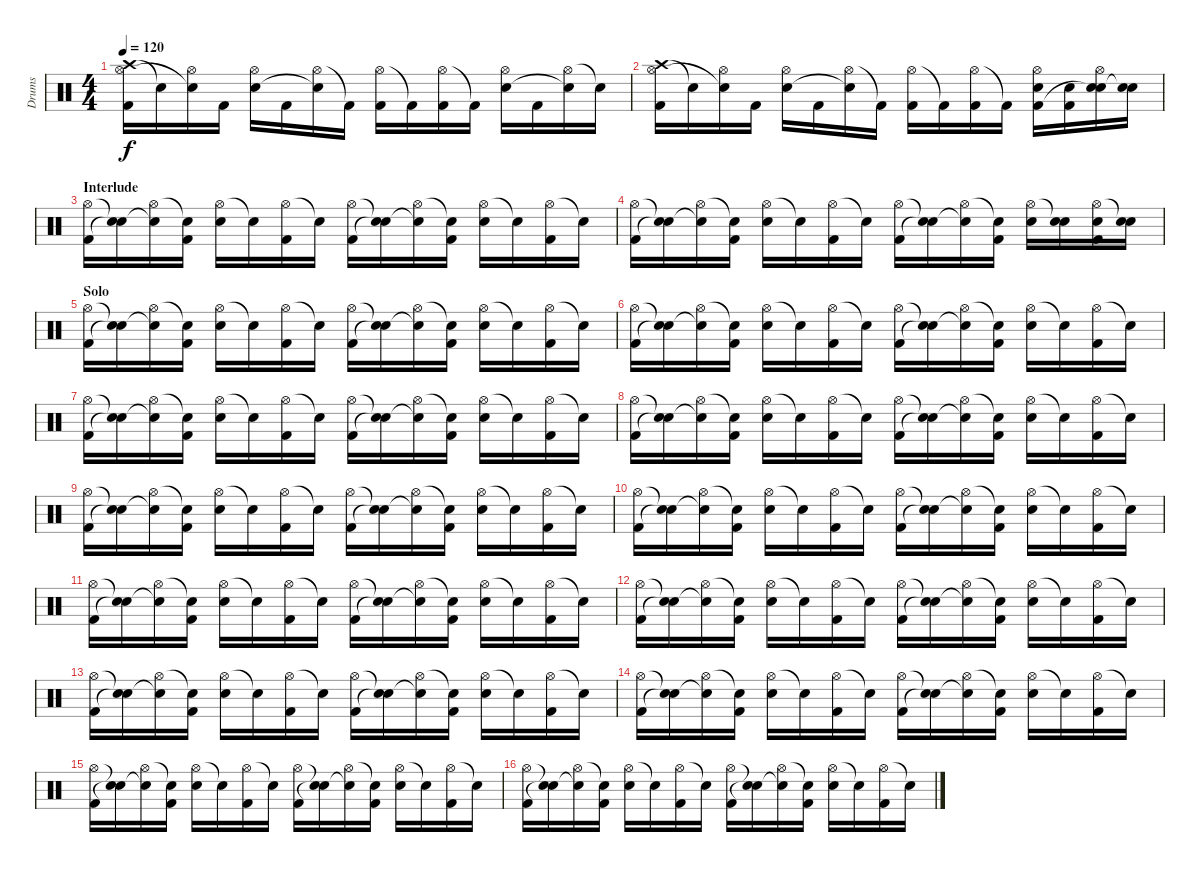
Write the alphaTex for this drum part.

\track ("Drums" "Drums") {instrument percussion}
\staff {score}
\articulation defaults
\ts (4 4)
\tempo 120
\clef neutral
\ks c
("Crash high (hit)" "Hi-Hat (open)" "Kick (hit) 2").16{dy f} "Snare (hit)"{t}.16 ("Hi-Hat (open)" "Snare (hit)"{t}).16 "Kick (hit) 2".16 ("Hi-Hat (open)" "Electric Snare (hit)").16 "Kick (hit) 2".16 ("Hi-Hat (open)" "Snare (hit)"{t}).16 "Kick (hit) 2"{t}.16 ("Hi-Hat (open)" "Kick (hit) 2").16 "Kick (hit) 2"{t}.16 ("Hi-Hat (open)" "Kick (hit) 2").16 "Kick (hit) 2"{t}.16 ("Hi-Hat (open)" "Electric Snare (hit)").16 "Kick (hit) 2".16 ("Hi-Hat (open)" "Snare (hit)"{t}).16 "Snare (hit)"{t}.16 |
("Crash high (hit)" "Hi-Hat (open)" "Kick (hit) 2").16 "Snare (hit)"{t}.16 ("Hi-Hat (open)" "Snare (hit)"{t}).16 "Kick (hit) 2".16 ("Hi-Hat (open)" "Electric Snare (hit)").16 "Kick (hit) 2".16 ("Hi-Hat (open)" "Snare (hit)"{t}).16 "Kick (hit) 2"{t}.16 ("Hi-Hat (open)" "Kick (hit) 2").16 "Kick (hit) 2"{t}.16 ("Hi-Hat (open)" "Kick (hit) 2").16 "Kick (hit) 2"{t}.16 ("Hi-Hat (open)" "Electric Snare (hit)" "Kick (hit) 2").16 ("Electric Snare (hit)" "Kick (hit) 2").16 ("Hi-Hat (open)" "Electric Snare (hit)" "Snare (hit)"{t}).16 ("Electric Snare (hit)" "Snare (hit)"{t}).16 |
\section ("" "Interlude")
("Hi-Hat (open)" "Kick (hit) 2").16 ("Snare (hit)"{t} "Snare (hit)"{t}).16 ("Hi-Hat (open)" "Snare (hit)"{t}).16 ("Snare (hit)"{t} "Kick (hit) 2").16 ("Hi-Hat (open)" "Electric Snare (hit)").16 "Snare (hit)"{t}.16 ("Hi-Hat (open)" "Kick (hit) 2").16 "Snare (hit)"{t}.16 ("Hi-Hat (open)" "Kick (hit) 2").16 ("Snare (hit)"{t} "Snare (hit)"{t}).16 ("Hi-Hat (open)" "Snare (hit)"{t}).16 ("Snare (hit)"{t} "Kick (hit) 2").16 ("Hi-Hat (open)" "Electric Snare (hit)").16 "Snare (hit)"{t}.16 ("Hi-Hat (open)" "Kick (hit) 2").16 "Snare (hit)"{t}.16 |
("Hi-Hat (open)" "Kick (hit) 2").16 ("Snare (hit)"{t} "Snare (hit)"{t}).16 ("Hi-Hat (open)" "Snare (hit)"{t}).16 ("Snare (hit)"{t} "Kick (hit) 2").16 ("Hi-Hat (open)" "Electric Snare (hit)").16 "Snare (hit)"{t}.16 ("Hi-Hat (open)" "Kick (hit) 2").16 "Snare (hit)"{t}.16 ("Hi-Hat (open)" "Kick (hit) 2").16 ("Snare (hit)"{t} "Snare (hit)"{t}).16 ("Hi-Hat (open)" "Snare (hit)"{t}).16 ("Snare (hit)"{t} "Kick (hit) 2").16 ("Hi-Hat (open)" "Electric Snare (hit)").16 ("Snare (hit)"{t} "Electric Snare (hit)").16 ("Hi-Hat (open)" "Electric Snare (hit)" "Kick (hit) 2").16 ("Snare (hit)"{t} "Electric Snare (hit)").16 |
\section ("" "Solo")
("Hi-Hat (open)" "Kick (hit) 2").16 ("Snare (hit)"{t} "Snare (hit)"{t}).16 ("Hi-Hat (open)" "Snare (hit)"{t}).16 ("Snare (hit)"{t} "Kick (hit) 2").16 ("Hi-Hat (open)" "Electric Snare (hit)").16 "Snare (hit)"{t}.16 ("Hi-Hat (open)" "Kick (hit) 2").16 "Snare (hit)"{t}.16 ("Hi-Hat (open)" "Kick (hit) 2").16 ("Snare (hit)"{t} "Snare (hit)"{t}).16 ("Hi-Hat (open)" "Snare (hit)"{t}).16 ("Snare (hit)"{t} "Kick (hit) 2").16 ("Hi-Hat (open)" "Electric Snare (hit)").16 "Snare (hit)"{t}.16 ("Hi-Hat (open)" "Kick (hit) 2").16 "Snare (hit)"{t}.16 |
("Hi-Hat (open)" "Kick (hit) 2").16 ("Snare (hit)"{t} "Snare (hit)"{t}).16 ("Hi-Hat (open)" "Snare (hit)"{t}).16 ("Snare (hit)"{t} "Kick (hit) 2").16 ("Hi-Hat (open)" "Electric Snare (hit)").16 "Snare (hit)"{t}.16 ("Hi-Hat (open)" "Kick (hit) 2").16 "Snare (hit)"{t}.16 ("Hi-Hat (open)" "Kick (hit) 2").16 ("Snare (hit)"{t} "Snare (hit)"{t}).16 ("Hi-Hat (open)" "Snare (hit)"{t}).16 ("Snare (hit)"{t} "Kick (hit) 2").16 ("Hi-Hat (open)" "Electric Snare (hit)").16 "Snare (hit)"{t}.16 ("Hi-Hat (open)" "Kick (hit) 2").16 "Snare (hit)"{t}.16 |
("Hi-Hat (open)" "Kick (hit) 2").16 ("Snare (hit)"{t} "Snare (hit)"{t}).16 ("Hi-Hat (open)" "Snare (hit)"{t}).16 ("Snare (hit)"{t} "Kick (hit) 2").16 ("Hi-Hat (open)" "Electric Snare (hit)").16 "Snare (hit)"{t}.16 ("Hi-Hat (open)" "Kick (hit) 2").16 "Snare (hit)"{t}.16 ("Hi-Hat (open)" "Kick (hit) 2").16 ("Snare (hit)"{t} "Snare (hit)"{t}).16 ("Hi-Hat (open)" "Snare (hit)"{t}).16 ("Snare (hit)"{t} "Kick (hit) 2").16 ("Hi-Hat (open)" "Electric Snare (hit)").16 "Snare (hit)"{t}.16 ("Hi-Hat (open)" "Kick (hit) 2").16 "Snare (hit)"{t}.16 |
("Hi-Hat (open)" "Kick (hit) 2").16 ("Snare (hit)"{t} "Snare (hit)"{t}).16 ("Hi-Hat (open)" "Snare (hit)"{t}).16 ("Snare (hit)"{t} "Kick (hit) 2").16 ("Hi-Hat (open)" "Electric Snare (hit)").16 "Snare (hit)"{t}.16 ("Hi-Hat (open)" "Kick (hit) 2").16 "Snare (hit)"{t}.16 ("Hi-Hat (open)" "Kick (hit) 2").16 ("Snare (hit)"{t} "Snare (hit)"{t}).16 ("Hi-Hat (open)" "Snare (hit)"{t}).16 ("Snare (hit)"{t} "Kick (hit) 2").16 ("Hi-Hat (open)" "Electric Snare (hit)").16 "Snare (hit)"{t}.16 ("Hi-Hat (open)" "Kick (hit) 2").16 "Snare (hit)"{t}.16 |
("Hi-Hat (open)" "Kick (hit) 2").16 ("Snare (hit)"{t} "Snare (hit)"{t}).16 ("Hi-Hat (open)" "Snare (hit)"{t}).16 ("Snare (hit)"{t} "Kick (hit) 2").16 ("Hi-Hat (open)" "Electric Snare (hit)").16 "Snare (hit)"{t}.16 ("Hi-Hat (open)" "Kick (hit) 2").16 "Snare (hit)"{t}.16 ("Hi-Hat (open)" "Kick (hit) 2").16 ("Snare (hit)"{t} "Snare (hit)"{t}).16 ("Hi-Hat (open)" "Snare (hit)"{t}).16 ("Snare (hit)"{t} "Kick (hit) 2").16 ("Hi-Hat (open)" "Electric Snare (hit)").16 "Snare (hit)"{t}.16 ("Hi-Hat (open)" "Kick (hit) 2").16 "Snare (hit)"{t}.16 |
("Hi-Hat (open)" "Kick (hit) 2").16 ("Snare (hit)"{t} "Snare (hit)"{t}).16 ("Hi-Hat (open)" "Snare (hit)"{t}).16 ("Snare (hit)"{t} "Kick (hit) 2").16 ("Hi-Hat (open)" "Electric Snare (hit)").16 "Snare (hit)"{t}.16 ("Hi-Hat (open)" "Kick (hit) 2").16 "Snare (hit)"{t}.16 ("Hi-Hat (open)" "Kick (hit) 2").16 ("Snare (hit)"{t} "Snare (hit)"{t}).16 ("Hi-Hat (open)" "Snare (hit)"{t}).16 ("Snare (hit)"{t} "Kick (hit) 2").16 ("Hi-Hat (open)" "Electric Snare (hit)").16 "Snare (hit)"{t}.16 ("Hi-Hat (open)" "Kick (hit) 2").16 "Snare (hit)"{t}.16 |
("Hi-Hat (open)" "Kick (hit) 2").16 ("Snare (hit)"{t} "Snare (hit)"{t}).16 ("Hi-Hat (open)" "Snare (hit)"{t}).16 ("Snare (hit)"{t} "Kick (hit) 2").16 ("Hi-Hat (open)" "Electric Snare (hit)").16 "Snare (hit)"{t}.16 ("Hi-Hat (open)" "Kick (hit) 2").16 "Snare (hit)"{t}.16 ("Hi-Hat (open)" "Kick (hit) 2").16 ("Snare (hit)"{t} "Snare (hit)"{t}).16 ("Hi-Hat (open)" "Snare (hit)"{t}).16 ("Snare (hit)"{t} "Kick (hit) 2").16 ("Hi-Hat (open)" "Electric Snare (hit)").16 "Snare (hit)"{t}.16 ("Hi-Hat (open)" "Kick (hit) 2").16 "Snare (hit)"{t}.16 |
("Hi-Hat (open)" "Kick (hit) 2").16 ("Snare (hit)"{t} "Snare (hit)"{t}).16 ("Hi-Hat (open)" "Snare (hit)"{t}).16 ("Snare (hit)"{t} "Kick (hit) 2").16 ("Hi-Hat (open)" "Electric Snare (hit)").16 "Snare (hit)"{t}.16 ("Hi-Hat (open)" "Kick (hit) 2").16 "Snare (hit)"{t}.16 ("Hi-Hat (open)" "Kick (hit) 2").16 ("Snare (hit)"{t} "Snare (hit)"{t}).16 ("Hi-Hat (open)" "Snare (hit)"{t}).16 ("Snare (hit)"{t} "Kick (hit) 2").16 ("Hi-Hat (open)" "Electric Snare (hit)").16 "Snare (hit)"{t}.16 ("Hi-Hat (open)" "Kick (hit) 2").16 "Snare (hit)"{t}.16 |
("Hi-Hat (open)" "Kick (hit) 2").16 ("Snare (hit)"{t} "Snare (hit)"{t}).16 ("Hi-Hat (open)" "Snare (hit)"{t}).16 ("Snare (hit)"{t} "Kick (hit) 2").16 ("Hi-Hat (open)" "Electric Snare (hit)").16 "Snare (hit)"{t}.16 ("Hi-Hat (open)" "Kick (hit) 2").16 "Snare (hit)"{t}.16 ("Hi-Hat (open)" "Kick (hit) 2").16 ("Snare (hit)"{t} "Snare (hit)"{t}).16 ("Hi-Hat (open)" "Snare (hit)"{t}).16 ("Snare (hit)"{t} "Kick (hit) 2").16 ("Hi-Hat (open)" "Electric Snare (hit)").16 "Snare (hit)"{t}.16 ("Hi-Hat (open)" "Kick (hit) 2").16 "Snare (hit)"{t}.16 |
("Hi-Hat (open)" "Kick (hit) 2").16 ("Snare (hit)"{t} "Snare (hit)"{t}).16 ("Hi-Hat (open)" "Snare (hit)"{t}).16 ("Snare (hit)"{t} "Kick (hit) 2").16 ("Hi-Hat (open)" "Electric Snare (hit)").16 "Snare (hit)"{t}.16 ("Hi-Hat (open)" "Kick (hit) 2").16 "Snare (hit)"{t}.16 ("Hi-Hat (open)" "Kick (hit) 2").16 ("Snare (hit)"{t} "Snare (hit)"{t}).16 ("Hi-Hat (open)" "Snare (hit)"{t}).16 ("Snare (hit)"{t} "Kick (hit) 2").16 ("Hi-Hat (open)" "Electric Snare (hit)").16 "Snare (hit)"{t}.16 ("Hi-Hat (open)" "Kick (hit) 2").16 "Snare (hit)"{t}.16 |
("Hi-Hat (open)" "Kick (hit) 2").16 ("Snare (hit)"{t} "Snare (hit)"{t}).16 ("Hi-Hat (open)" "Snare (hit)"{t}).16 ("Snare (hit)"{t} "Kick (hit) 2").16 ("Hi-Hat (open)" "Electric Snare (hit)").16 "Snare (hit)"{t}.16 ("Hi-Hat (open)" "Kick (hit) 2").16 "Snare (hit)"{t}.16 ("Hi-Hat (open)" "Kick (hit) 2").16 ("Snare (hit)"{t} "Snare (hit)"{t}).16 ("Hi-Hat (open)" "Snare (hit)"{t}).16 ("Snare (hit)"{t} "Kick (hit) 2").16 ("Hi-Hat (open)" "Electric Snare (hit)").16 "Snare (hit)"{t}.16 ("Hi-Hat (open)" "Kick (hit) 2").16 "Snare (hit)"{t}.16 |
("Hi-Hat (open)" "Kick (hit) 2").16 ("Snare (hit)"{t} "Snare (hit)"{t}).16 ("Hi-Hat (open)" "Snare (hit)"{t}).16 ("Snare (hit)"{t} "Kick (hit) 2").16 ("Hi-Hat (open)" "Electric Snare (hit)").16 "Snare (hit)"{t}.16 ("Hi-Hat (open)" "Kick (hit) 2").16 "Snare (hit)"{t}.16 ("Hi-Hat (open)" "Kick (hit) 2").16 ("Snare (hit)"{t} "Snare (hit)"{t}).16 ("Hi-Hat (open)" "Snare (hit)"{t}).16 ("Snare (hit)"{t} "Kick (hit) 2").16 ("Hi-Hat (open)" "Electric Snare (hit)").16 "Snare (hit)"{t}.16 ("Hi-Hat (open)" "Kick (hit) 2").16 "Snare (hit)"{t}.16
